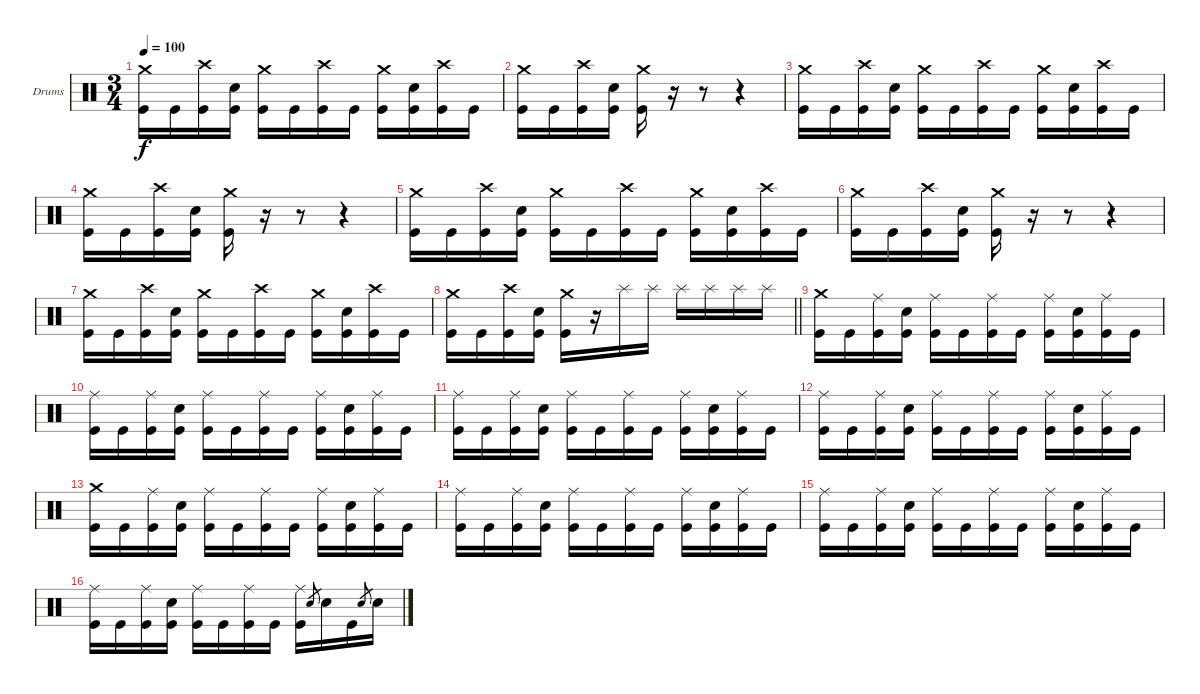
\bracketExtendMode groupsimilarinstruments
\firstSystemTrackNameOrientation horizontal
\otherSystemsTrackNameOrientation horizontal
\track ("Drumkit" "Drums") {instrument percussion}
\staff {score}
\articulation defaults
\ts (3 4)
\section ("" "")
\tempo 100
\clef neutral
\ks c
("Crash medium (hit)" "Kick (hit)").16{dy f} "Kick (hit)".16 ("Crash high (hit)" "Kick (hit)").16 ("Snare (hit) 2" "Kick (hit)").16 ("Crash medium (hit)" "Kick (hit)").16 "Kick (hit)".16 ("Crash high (hit)" "Kick (hit)").16 "Kick (hit)".16 ("Crash medium (hit)" "Kick (hit)").16 ("Snare (hit) 2" "Kick (hit)").16 ("Crash high (hit)" "Kick (hit)").16 "Kick (hit)".16 |
("Crash medium (hit)" "Kick (hit)").16 "Kick (hit)".16 ("Crash high (hit)" "Kick (hit)").16 ("Snare (hit) 2" "Kick (hit)").16 ("Crash medium (hit)" "Kick (hit)").16 r.16 r.8 r.4 |
("Crash medium (hit)" "Kick (hit)").16 "Kick (hit)".16 ("Crash high (hit)" "Kick (hit)").16 ("Snare (hit) 2" "Kick (hit)").16 ("Crash medium (hit)" "Kick (hit)").16 "Kick (hit)".16 ("Crash high (hit)" "Kick (hit)").16 "Kick (hit)".16 ("Crash medium (hit)" "Kick (hit)").16 ("Snare (hit) 2" "Kick (hit)").16 ("Crash high (hit)" "Kick (hit)").16 "Kick (hit)".16 |
("Crash medium (hit)" "Kick (hit)").16 "Kick (hit)".16 ("Crash high (hit)" "Kick (hit)").16 ("Snare (hit) 2" "Kick (hit)").16 ("Crash medium (hit)" "Kick (hit)").16 r.16 r.8 r.4 |
("Crash medium (hit)" "Kick (hit)").16 "Kick (hit)".16 ("Crash high (hit)" "Kick (hit)").16 ("Snare (hit) 2" "Kick (hit)").16 ("Crash medium (hit)" "Kick (hit)").16 "Kick (hit)".16 ("Crash high (hit)" "Kick (hit)").16 "Kick (hit)".16 ("Crash medium (hit)" "Kick (hit)").16 ("Snare (hit) 2" "Kick (hit)").16 ("Crash high (hit)" "Kick (hit)").16 "Kick (hit)".16 |
("Crash medium (hit)" "Kick (hit)").16 "Kick (hit)".16 ("Crash high (hit)" "Kick (hit)").16 ("Snare (hit) 2" "Kick (hit)").16 ("Crash medium (hit)" "Kick (hit)").16 r.16 r.8 r.4 |
("Crash medium (hit)" "Kick (hit)").16 "Kick (hit)".16 ("Crash high (hit)" "Kick (hit)").16 ("Snare (hit) 2" "Kick (hit)").16 ("Crash medium (hit)" "Kick (hit)").16 "Kick (hit)".16 ("Crash high (hit)" "Kick (hit)").16 "Kick (hit)".16 ("Crash medium (hit)" "Kick (hit)").16 ("Snare (hit) 2" "Kick (hit)").16 ("Crash high (hit)" "Kick (hit)").16 "Kick (hit)".16 |
\barLineRight lightlight
("Crash medium (hit)" "Kick (hit)").16 "Kick (hit)".16 ("Crash high (hit)" "Kick (hit)").16 ("Snare (hit) 2" "Kick (hit)").16 ("Crash medium (hit)" "Kick (hit)").16 r.16 "Splash (hit)".16 "Splash (hit)".16 "Splash (hit)".16 "Splash (hit)".16 "Splash (hit)".16 "Splash (hit)".16 |
\section ("" "")
("Crash medium (hit)" "Kick (hit)").16 "Kick (hit)".16 ("Ride (middle)" "Kick (hit)").16 ("Snare (hit) 2" "Kick (hit)").16 ("Ride (middle)" "Kick (hit)").16 "Kick (hit)".16 ("Ride (middle)" "Kick (hit)").16 "Kick (hit)".16 ("Ride (middle)" "Kick (hit)").16 ("Snare (hit) 2" "Kick (hit)").16 ("Ride (middle)" "Kick (hit)").16 "Kick (hit)".16 |
("Ride (middle)" "Kick (hit)").16 "Kick (hit)".16 ("Ride (middle)" "Kick (hit)").16 ("Snare (hit) 2" "Kick (hit)").16 ("Ride (middle)" "Kick (hit)").16 "Kick (hit)".16 ("Ride (middle)" "Kick (hit)").16 "Kick (hit)".16 ("Ride (middle)" "Kick (hit)").16 ("Snare (hit) 2" "Kick (hit)").16 ("Ride (middle)" "Kick (hit)").16 "Kick (hit)".16 |
("Ride (middle)" "Kick (hit)").16 "Kick (hit)".16 ("Ride (middle)" "Kick (hit)").16 ("Snare (hit) 2" "Kick (hit)").16 ("Ride (middle)" "Kick (hit)").16 "Kick (hit)".16 ("Ride (middle)" "Kick (hit)").16 "Kick (hit)".16 ("Ride (middle)" "Kick (hit)").16 ("Snare (hit) 2" "Kick (hit)").16 ("Ride (middle)" "Kick (hit)").16 "Kick (hit)".16 |
("Ride (middle)" "Kick (hit)").16 "Kick (hit)".16 ("Ride (middle)" "Kick (hit)").16 ("Snare (hit) 2" "Kick (hit)").16 ("Ride (middle)" "Kick (hit)").16 "Kick (hit)".16 ("Ride (middle)" "Kick (hit)").16 "Kick (hit)".16 ("Ride (middle)" "Kick (hit)").16 ("Snare (hit) 2" "Kick (hit)").16 ("Ride (middle)" "Kick (hit)").16 "Kick (hit)".16 |
("Crash medium (hit)" "Kick (hit)").16 "Kick (hit)".16 ("Ride (middle)" "Kick (hit)").16 ("Snare (hit) 2" "Kick (hit)").16 ("Ride (middle)" "Kick (hit)").16 "Kick (hit)".16 ("Ride (middle)" "Kick (hit)").16 "Kick (hit)".16 ("Ride (middle)" "Kick (hit)").16 ("Snare (hit) 2" "Kick (hit)").16 ("Ride (middle)" "Kick (hit)").16 "Kick (hit)".16 |
("Ride (middle)" "Kick (hit)").16 "Kick (hit)".16 ("Ride (middle)" "Kick (hit)").16 ("Snare (hit) 2" "Kick (hit)").16 ("Ride (middle)" "Kick (hit)").16 "Kick (hit)".16 ("Ride (middle)" "Kick (hit)").16 "Kick (hit)".16 ("Ride (middle)" "Kick (hit)").16 ("Snare (hit) 2" "Kick (hit)").16 ("Ride (middle)" "Kick (hit)").16 "Kick (hit)".16 |
("Ride (middle)" "Kick (hit)").16 "Kick (hit)".16 ("Ride (middle)" "Kick (hit)").16 ("Snare (hit) 2" "Kick (hit)").16 ("Ride (middle)" "Kick (hit)").16 "Kick (hit)".16 ("Ride (middle)" "Kick (hit)").16 "Kick (hit)".16 ("Ride (middle)" "Kick (hit)").16 ("Snare (hit) 2" "Kick (hit)").16 ("Ride (middle)" "Kick (hit)").16 "Kick (hit)".16 |
("Ride (middle)" "Kick (hit)").16 "Kick (hit)".16 ("Ride (middle)" "Kick (hit)").16 ("Snare (hit) 2" "Kick (hit)").16 ("Ride (middle)" "Kick (hit)").16 "Kick (hit)".16 ("Ride (middle)" "Kick (hit)").16 "Kick (hit)".16 ("Ride (middle)" "Kick (hit)").16 "Snare (hit) 2".8{gr} "Snare (hit) 2".16 "Kick (hit)".16 "Snare (hit) 2".8{gr} "Snare (hit) 2".16
